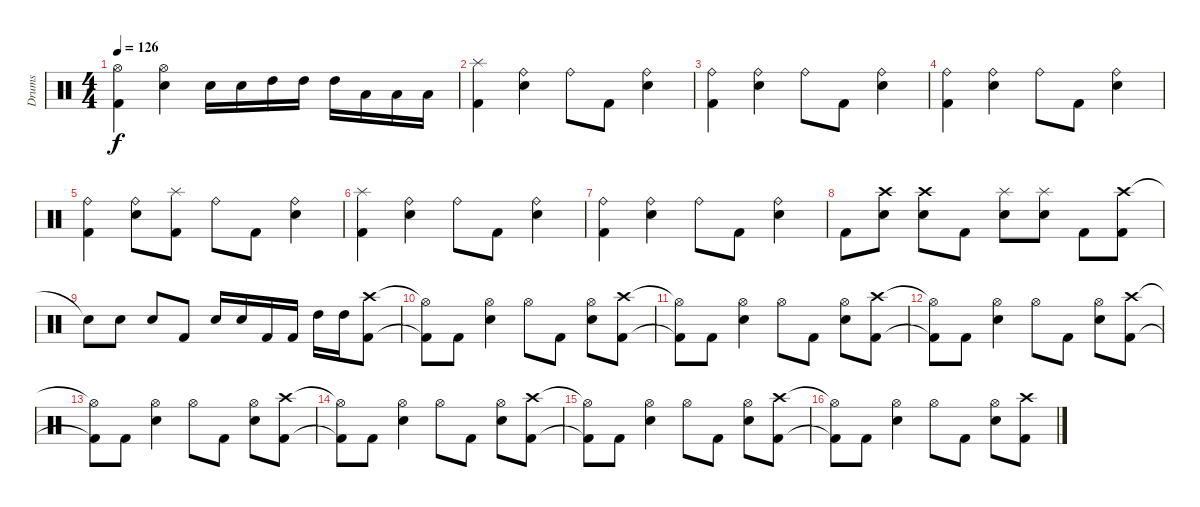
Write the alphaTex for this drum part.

\track ("Drums" "Drums") {instrument percussion}
\staff {score}
\articulation defaults
\ts (4 4)
\tempo 126
\clef neutral
\ks c
("Hi-Hat (open)" "Kick (hit) 2").4{dy f} ("Hi-Hat (open)" "Snare (hit) 2").4 "Snare (hit) 2".16 "Snare (hit) 2".16 "High Tom (hit)".16 "High Tom (hit)".16 "High Tom (hit)".16 "Low Tom (hit)".16 "Low Tom (hit)".16 "Low Tom (hit)".16 |
("Splash (hit)" "Kick (hit) 2").4 ("Ride (bell)" "Snare (hit) 2").4 "Ride (bell)".8 "Kick (hit) 2".8 ("Ride (bell)" "Snare (hit) 2").4 |
("Ride (bell)" "Kick (hit) 2").4 ("Ride (bell)" "Snare (hit) 2").4 "Ride (bell)".8 "Kick (hit) 2".8 ("Ride (bell)" "Snare (hit) 2").4 |
("Ride (bell)" "Kick (hit) 2").4 ("Ride (bell)" "Snare (hit) 2").4 "Ride (bell)".8 "Kick (hit) 2".8 ("Ride (bell)" "Snare (hit) 2").4 |
("Ride (bell)" "Kick (hit) 2").4 ("Ride (bell)" "Snare (hit) 2").8 ("Splash (hit)" "Kick (hit) 2").8 "Ride (bell)".8 "Kick (hit) 2".8 ("Ride (bell)" "Snare (hit) 2").4 |
("Splash (hit)" "Kick (hit) 2").4 ("Ride (bell)" "Snare (hit) 2").4 "Ride (bell)".8 "Kick (hit) 2".8 ("Ride (bell)" "Snare (hit) 2").4 |
("Ride (bell)" "Kick (hit) 2").4 ("Ride (bell)" "Snare (hit) 2").4 "Ride (bell)".8 "Kick (hit) 2".8 ("Ride (bell)" "Snare (hit) 2").4 |
"Kick (hit) 2".8 ("Crash high (hit)" "Snare (hit) 2").8 ("Crash high (hit)" "Snare (hit) 2").8 "Kick (hit) 2".8 ("Splash (hit)" "Snare (hit) 2").8 ("Splash (hit)" "Snare (hit) 2").8 "Kick (hit) 2".8 ("Crash high (hit)" "Kick (hit) 2").8 |
"Snare (hit)"{t}.8 "Snare (hit) 2".8 "Snare (hit) 2".8 "Kick (hit) 2".8 "Snare (hit) 2".16 "Snare (hit) 2".16 "Kick (hit) 2".16 "Kick (hit) 2".16 "High Tom (hit)".16 "High Tom (hit)".16 ("Crash high (hit)" "Kick (hit) 2").8 |
("Hi-Hat (open)"{t} "Kick (hit) 2"{t}).8 "Kick (hit) 2".8 ("Hi-Hat (open)" "Snare (hit) 2").4 "Hi-Hat (open)".8 "Kick (hit) 2".8 ("Hi-Hat (open)" "Snare (hit) 2").8 ("Crash high (hit)" "Kick (hit) 2").8 |
("Hi-Hat (open)"{t} "Kick (hit) 2"{t}).8 "Kick (hit) 2".8 ("Hi-Hat (open)" "Snare (hit) 2").4 "Hi-Hat (open)".8 "Kick (hit) 2".8 ("Hi-Hat (open)" "Snare (hit) 2").8 ("Crash high (hit)" "Kick (hit) 2").8 |
("Hi-Hat (open)"{t} "Kick (hit) 2"{t}).8 "Kick (hit) 2".8 ("Hi-Hat (open)" "Snare (hit) 2").4 "Hi-Hat (open)".8 "Kick (hit) 2".8 ("Hi-Hat (open)" "Snare (hit) 2").8 ("Crash high (hit)" "Kick (hit) 2").8 |
("Hi-Hat (open)"{t} "Kick (hit) 2"{t}).8 "Kick (hit) 2".8 ("Hi-Hat (open)" "Snare (hit) 2").4 "Hi-Hat (open)".8 "Kick (hit) 2".8 ("Hi-Hat (open)" "Snare (hit) 2").8 ("Crash high (hit)" "Kick (hit) 2").8 |
("Hi-Hat (open)"{t} "Kick (hit) 2"{t}).8 "Kick (hit) 2".8 ("Hi-Hat (open)" "Snare (hit) 2").4 "Hi-Hat (open)".8 "Kick (hit) 2".8 ("Hi-Hat (open)" "Snare (hit) 2").8 ("Crash high (hit)" "Kick (hit) 2").8 |
("Hi-Hat (open)"{t} "Kick (hit) 2"{t}).8 "Kick (hit) 2".8 ("Hi-Hat (open)" "Snare (hit) 2").4 "Hi-Hat (open)".8 "Kick (hit) 2".8 ("Hi-Hat (open)" "Snare (hit) 2").8 ("Crash high (hit)" "Kick (hit) 2").8 |
("Hi-Hat (open)"{t} "Kick (hit) 2"{t}).8 "Kick (hit) 2".8 ("Hi-Hat (open)" "Snare (hit) 2").4 "Hi-Hat (open)".8 "Kick (hit) 2".8 ("Hi-Hat (open)" "Snare (hit) 2").8 ("Crash high (hit)" "Kick (hit) 2").8
